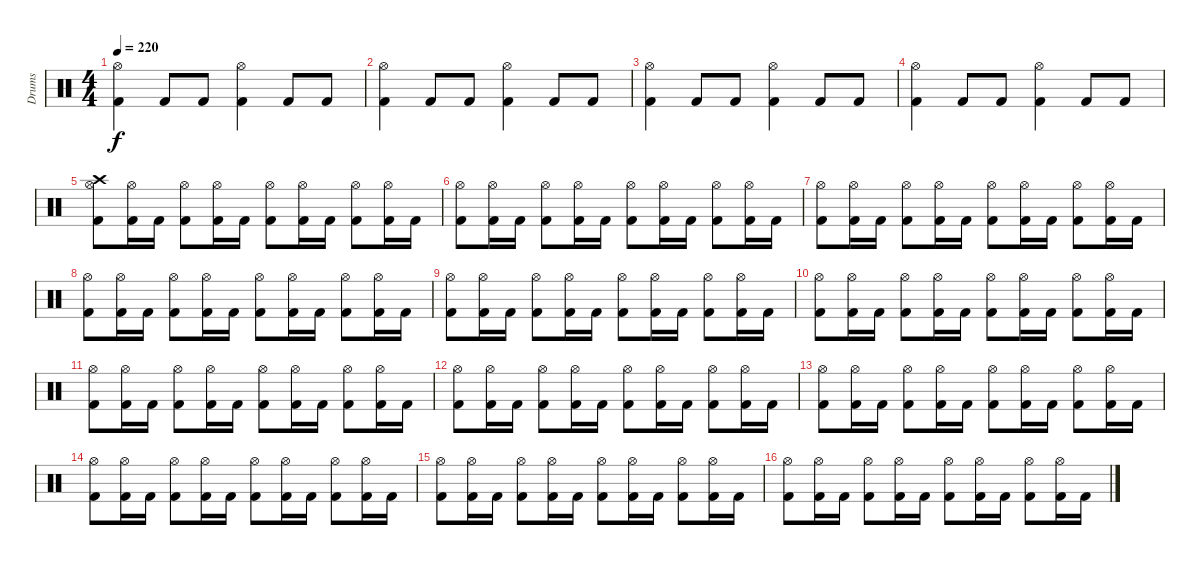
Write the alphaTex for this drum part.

\track ("Drums" "Drums") {instrument percussion}
\staff {score}
\articulation defaults
\ts (4 4)
\tempo 220
\clef neutral
\ks c
("Hi-Hat (open)" "Kick (hit) 2").4{dy f} "Kick (hit) 2".8 "Kick (hit) 2".8 ("Hi-Hat (open)" "Kick (hit) 2").4 "Kick (hit) 2".8 "Kick (hit) 2".8 |
("Hi-Hat (open)" "Kick (hit) 2").4 "Kick (hit) 2".8 "Kick (hit) 2".8 ("Hi-Hat (open)" "Kick (hit) 2").4 "Kick (hit) 2".8 "Kick (hit) 2".8 |
("Hi-Hat (open)" "Kick (hit) 2").4 "Kick (hit) 2".8 "Kick (hit) 2".8 ("Hi-Hat (open)" "Kick (hit) 2").4 "Kick (hit) 2".8 "Kick (hit) 2".8 |
("Hi-Hat (open)" "Kick (hit) 2").4 "Kick (hit) 2".8 "Kick (hit) 2".8 ("Hi-Hat (open)" "Kick (hit) 2").4 "Kick (hit) 2".8 "Kick (hit) 2".8 |
("Crash high (hit)" "Hi-Hat (open)" "Kick (hit) 2").8 ("Hi-Hat (open)" "Kick (hit) 2").16 "Kick (hit) 2".16 ("Hi-Hat (open)" "Kick (hit) 2").8 ("Hi-Hat (open)" "Kick (hit) 2").16 "Kick (hit) 2".16 ("Hi-Hat (open)" "Kick (hit) 2").8 ("Hi-Hat (open)" "Kick (hit) 2").16 "Kick (hit) 2".16 ("Hi-Hat (open)" "Kick (hit) 2").8 ("Hi-Hat (open)" "Kick (hit) 2").16 "Kick (hit) 2".16 |
("Hi-Hat (open)" "Kick (hit) 2").8 ("Hi-Hat (open)" "Kick (hit) 2").16 "Kick (hit) 2".16 ("Hi-Hat (open)" "Kick (hit) 2").8 ("Hi-Hat (open)" "Kick (hit) 2").16 "Kick (hit) 2".16 ("Hi-Hat (open)" "Kick (hit) 2").8 ("Hi-Hat (open)" "Kick (hit) 2").16 "Kick (hit) 2".16 ("Hi-Hat (open)" "Kick (hit) 2").8 ("Hi-Hat (open)" "Kick (hit) 2").16 "Kick (hit) 2".16 |
("Hi-Hat (open)" "Kick (hit) 2").8 ("Hi-Hat (open)" "Kick (hit) 2").16 "Kick (hit) 2".16 ("Hi-Hat (open)" "Kick (hit) 2").8 ("Hi-Hat (open)" "Kick (hit) 2").16 "Kick (hit) 2".16 ("Hi-Hat (open)" "Kick (hit) 2").8 ("Hi-Hat (open)" "Kick (hit) 2").16 "Kick (hit) 2".16 ("Hi-Hat (open)" "Kick (hit) 2").8 ("Hi-Hat (open)" "Kick (hit) 2").16 "Kick (hit) 2".16 |
("Hi-Hat (open)" "Kick (hit) 2").8 ("Hi-Hat (open)" "Kick (hit) 2").16 "Kick (hit) 2".16 ("Hi-Hat (open)" "Kick (hit) 2").8 ("Hi-Hat (open)" "Kick (hit) 2").16 "Kick (hit) 2".16 ("Hi-Hat (open)" "Kick (hit) 2").8 ("Hi-Hat (open)" "Kick (hit) 2").16 "Kick (hit) 2".16 ("Hi-Hat (open)" "Kick (hit) 2").8 ("Hi-Hat (open)" "Kick (hit) 2").16 "Kick (hit) 2".16 |
("Hi-Hat (open)" "Kick (hit) 2").8 ("Hi-Hat (open)" "Kick (hit) 2").16 "Kick (hit) 2".16 ("Hi-Hat (open)" "Kick (hit) 2").8 ("Hi-Hat (open)" "Kick (hit) 2").16 "Kick (hit) 2".16 ("Hi-Hat (open)" "Kick (hit) 2").8 ("Hi-Hat (open)" "Kick (hit) 2").16 "Kick (hit) 2".16 ("Hi-Hat (open)" "Kick (hit) 2").8 ("Hi-Hat (open)" "Kick (hit) 2").16 "Kick (hit) 2".16 |
("Hi-Hat (open)" "Kick (hit) 2").8 ("Hi-Hat (open)" "Kick (hit) 2").16 "Kick (hit) 2".16 ("Hi-Hat (open)" "Kick (hit) 2").8 ("Hi-Hat (open)" "Kick (hit) 2").16 "Kick (hit) 2".16 ("Hi-Hat (open)" "Kick (hit) 2").8 ("Hi-Hat (open)" "Kick (hit) 2").16 "Kick (hit) 2".16 ("Hi-Hat (open)" "Kick (hit) 2").8 ("Hi-Hat (open)" "Kick (hit) 2").16 "Kick (hit) 2".16 |
("Hi-Hat (open)" "Kick (hit) 2").8 ("Hi-Hat (open)" "Kick (hit) 2").16 "Kick (hit) 2".16 ("Hi-Hat (open)" "Kick (hit) 2").8 ("Hi-Hat (open)" "Kick (hit) 2").16 "Kick (hit) 2".16 ("Hi-Hat (open)" "Kick (hit) 2").8 ("Hi-Hat (open)" "Kick (hit) 2").16 "Kick (hit) 2".16 ("Hi-Hat (open)" "Kick (hit) 2").8 ("Hi-Hat (open)" "Kick (hit) 2").16 "Kick (hit) 2".16 |
("Hi-Hat (open)" "Kick (hit) 2").8 ("Hi-Hat (open)" "Kick (hit) 2").16 "Kick (hit) 2".16 ("Hi-Hat (open)" "Kick (hit) 2").8 ("Hi-Hat (open)" "Kick (hit) 2").16 "Kick (hit) 2".16 ("Hi-Hat (open)" "Kick (hit) 2").8 ("Hi-Hat (open)" "Kick (hit) 2").16 "Kick (hit) 2".16 ("Hi-Hat (open)" "Kick (hit) 2").8 ("Hi-Hat (open)" "Kick (hit) 2").16 "Kick (hit) 2".16 |
("Hi-Hat (open)" "Kick (hit) 2").8 ("Hi-Hat (open)" "Kick (hit) 2").16 "Kick (hit) 2".16 ("Hi-Hat (open)" "Kick (hit) 2").8 ("Hi-Hat (open)" "Kick (hit) 2").16 "Kick (hit) 2".16 ("Hi-Hat (open)" "Kick (hit) 2").8 ("Hi-Hat (open)" "Kick (hit) 2").16 "Kick (hit) 2".16 ("Hi-Hat (open)" "Kick (hit) 2").8 ("Hi-Hat (open)" "Kick (hit) 2").16 "Kick (hit) 2".16 |
("Hi-Hat (open)" "Kick (hit) 2").8 ("Hi-Hat (open)" "Kick (hit) 2").16 "Kick (hit) 2".16 ("Hi-Hat (open)" "Kick (hit) 2").8 ("Hi-Hat (open)" "Kick (hit) 2").16 "Kick (hit) 2".16 ("Hi-Hat (open)" "Kick (hit) 2").8 ("Hi-Hat (open)" "Kick (hit) 2").16 "Kick (hit) 2".16 ("Hi-Hat (open)" "Kick (hit) 2").8 ("Hi-Hat (open)" "Kick (hit) 2").16 "Kick (hit) 2".16 |
("Hi-Hat (open)" "Kick (hit) 2").8 ("Hi-Hat (open)" "Kick (hit) 2").16 "Kick (hit) 2".16 ("Hi-Hat (open)" "Kick (hit) 2").8 ("Hi-Hat (open)" "Kick (hit) 2").16 "Kick (hit) 2".16 ("Hi-Hat (open)" "Kick (hit) 2").8 ("Hi-Hat (open)" "Kick (hit) 2").16 "Kick (hit) 2".16 ("Hi-Hat (open)" "Kick (hit) 2").8 ("Hi-Hat (open)" "Kick (hit) 2").16 "Kick (hit) 2".16 |
("Hi-Hat (open)" "Kick (hit) 2").8 ("Hi-Hat (open)" "Kick (hit) 2").16 "Kick (hit) 2".16 ("Hi-Hat (open)" "Kick (hit) 2").8 ("Hi-Hat (open)" "Kick (hit) 2").16 "Kick (hit) 2".16 ("Hi-Hat (open)" "Kick (hit) 2").8 ("Hi-Hat (open)" "Kick (hit) 2").16 "Kick (hit) 2".16 ("Hi-Hat (open)" "Kick (hit) 2").8 ("Hi-Hat (open)" "Kick (hit) 2").16 "Kick (hit) 2".16
